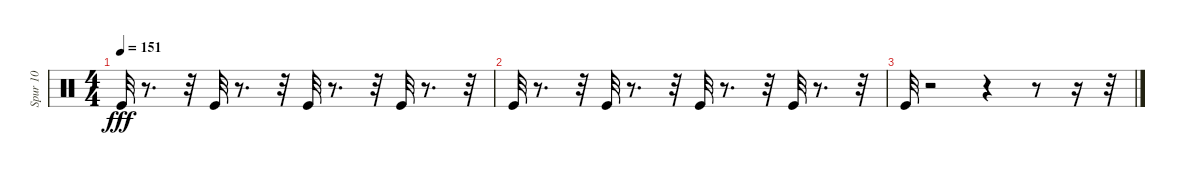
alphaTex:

\track ("Spur 10" "Spur 10") {instrument percussion}
\staff {score}
\articulation defaults
\ts (4 4)
\tempo 151
\clef neutral
\ks c "Kick (hit)".32{dy fff}
r.8{d} r.32 "Kick (hit)".32 r.8{d} r.32 "Kick (hit)".32 r.8{d} r.32 "Kick (hit)".32 r.8{d} r.32 |
"Kick (hit)".32 r.8{d} r.32 "Kick (hit)".32 r.8{d} r.32 "Kick (hit)".32 r.8{d} r.32 "Kick (hit)".32 r.8{d} r.32 |
"Kick (hit)".32 r.2 r.4 r.8 r.16 r.32
